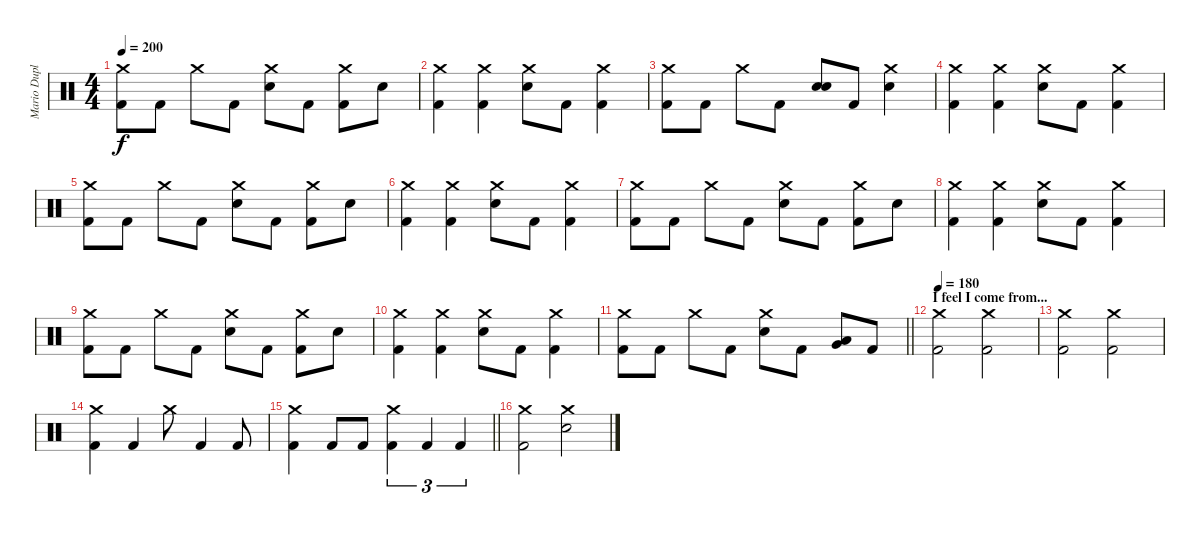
\track ("Mario Duplantier" "Mario Dupl") {instrument percussion}
\staff {score}
\articulation defaults
\ts (4 4)
\tempo 200
\clef neutral
\ks c
("Crash medium (hit)" "Kick (hit) 2").8{dy f} "Kick (hit) 2".8 "Crash medium (hit)".8 "Kick (hit) 2".8 ("Crash medium (hit)" "Electric Snare (hit)").8 "Kick (hit) 2".8 ("Crash medium (hit)" "Kick (hit) 2").8 "Electric Snare (hit)".8 |
("Crash medium (hit)" "Kick (hit) 2").4 ("Crash medium (hit)" "Kick (hit) 2").4 ("Crash medium (hit)" "Electric Snare (hit)").8 "Kick (hit) 2".8 ("Crash medium (hit)" "Kick (hit) 2").4 |
("Crash medium (hit)" "Kick (hit) 2").8 "Kick (hit) 2".8 "Crash medium (hit)".8 "Kick (hit) 2".8 ("Electric Snare (hit)" "Electric Snare (hit)").8 "Kick (hit) 2".8 ("Crash medium (hit)" "Electric Snare (hit)").4 |
("Crash medium (hit)" "Kick (hit) 2").4 ("Crash medium (hit)" "Kick (hit) 2").4 ("Crash medium (hit)" "Electric Snare (hit)").8 "Kick (hit) 2".8 ("Crash medium (hit)" "Kick (hit) 2").4 |
("Crash medium (hit)" "Kick (hit) 2").8 "Kick (hit) 2".8 "Crash medium (hit)".8 "Kick (hit) 2".8 ("Crash medium (hit)" "Electric Snare (hit)").8 "Kick (hit) 2".8 ("Crash medium (hit)" "Kick (hit) 2").8 "Electric Snare (hit)".8 |
("Crash medium (hit)" "Kick (hit) 2").4 ("Crash medium (hit)" "Kick (hit) 2").4 ("Crash medium (hit)" "Electric Snare (hit)").8 "Kick (hit) 2".8 ("Crash medium (hit)" "Kick (hit) 2").4 |
("Crash medium (hit)" "Kick (hit) 2").8 "Kick (hit) 2".8 "Crash medium (hit)".8 "Kick (hit) 2".8 ("Crash medium (hit)" "Electric Snare (hit)").8 "Kick (hit) 2".8 ("Crash medium (hit)" "Kick (hit) 2").8 "Electric Snare (hit)".8 |
("Crash medium (hit)" "Kick (hit) 2").4 ("Crash medium (hit)" "Kick (hit) 2").4 ("Crash medium (hit)" "Electric Snare (hit)").8 "Kick (hit) 2".8 ("Crash medium (hit)" "Kick (hit) 2").4 |
("Crash medium (hit)" "Kick (hit) 2").8 "Kick (hit) 2".8 "Crash medium (hit)".8 "Kick (hit) 2".8 ("Crash medium (hit)" "Electric Snare (hit)").8 "Kick (hit) 2".8 ("Crash medium (hit)" "Kick (hit) 2").8 "Electric Snare (hit)".8 |
("Crash medium (hit)" "Kick (hit) 2").4 ("Crash medium (hit)" "Kick (hit) 2").4 ("Crash medium (hit)" "Electric Snare (hit)").8 "Kick (hit) 2".8 ("Crash medium (hit)" "Kick (hit) 2").4 |
\barLineRight lightlight
("Crash medium (hit)" "Kick (hit) 2").8 "Kick (hit) 2".8 "Crash medium (hit)".8 "Kick (hit) 2".8 ("Crash medium (hit)" "Electric Snare (hit)").8 "Kick (hit) 2".8 ("Very Low Tom (hit)" "Low Floor Tom (hit)").8 "Kick (hit) 2".8 |
\section ("" "I feel I come from...")
\tempo 180
("Crash medium (hit)" "Kick (hit) 2").2 ("Crash medium (hit)" "Kick (hit) 2").2 |
("Crash medium (hit)" "Kick (hit) 2").2 ("Crash medium (hit)" "Kick (hit) 2").2 |
("Crash medium (hit)" "Kick (hit) 2").4 "Kick (hit) 2".4 "Crash medium (hit)".8 "Kick (hit) 2".4 "Kick (hit) 2".8 |
\barLineRight lightlight
("Crash medium (hit)" "Kick (hit) 2").4 "Kick (hit) 2".8 "Kick (hit) 2".8 ("Crash medium (hit)" "Kick (hit) 2").4{tu (3 2)} "Kick (hit) 2".4{tu (3 2)} "Kick (hit) 2".4{tu (3 2)} |
("Crash medium (hit)" "Kick (hit) 2").2 ("Crash medium (hit)" "Electric Snare (hit)").2
